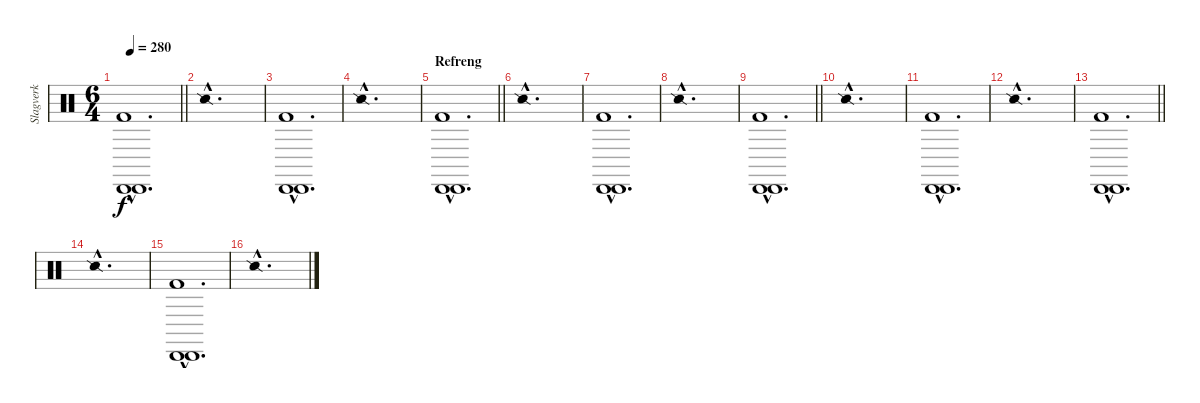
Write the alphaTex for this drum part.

\track ("Slagverk" "Slagverk") {instrument percussion}
\staff {score}
\articulation defaults
\ts (6 4)
\tempo 280
\clef neutral
\barLineRight lightlight
\ks c
("Cabasa (hit)"{hac} "Cabasa (hit)"{hac} "Kick (hit) 2"{hac}).1{d dy f} |
"Snare (side stick) 2"{hac}.1{d} |
("Cabasa (hit)"{hac} "Cabasa (hit)"{hac} "Kick (hit) 2"{hac}).1{d} |
"Snare (side stick) 2"{hac}.1{d} |
\section ("" "Refreng")
\barLineRight lightlight
("Cabasa (hit)"{hac} "Cabasa (hit)"{hac} "Kick (hit) 2"{hac}).1{d} |
"Snare (side stick) 2"{hac}.1{d} |
("Cabasa (hit)"{hac} "Cabasa (hit)"{hac} "Kick (hit) 2"{hac}).1{d} |
"Snare (side stick) 2"{hac}.1{d} |
\barLineRight lightlight
("Cabasa (hit)"{hac} "Cabasa (hit)"{hac} "Kick (hit) 2"{hac}).1{d} |
"Snare (side stick) 2"{hac}.1{d} |
("Cabasa (hit)"{hac} "Cabasa (hit)"{hac} "Kick (hit) 2"{hac}).1{d} |
"Snare (side stick) 2"{hac}.1{d} |
\barLineRight lightlight
("Cabasa (hit)"{hac} "Cabasa (hit)"{hac} "Kick (hit) 2"{hac}).1{d} |
"Snare (side stick) 2"{hac}.1{d} |
("Cabasa (hit)"{hac} "Cabasa (hit)"{hac} "Kick (hit) 2"{hac}).1{d} |
"Snare (side stick) 2"{hac}.1{d}
